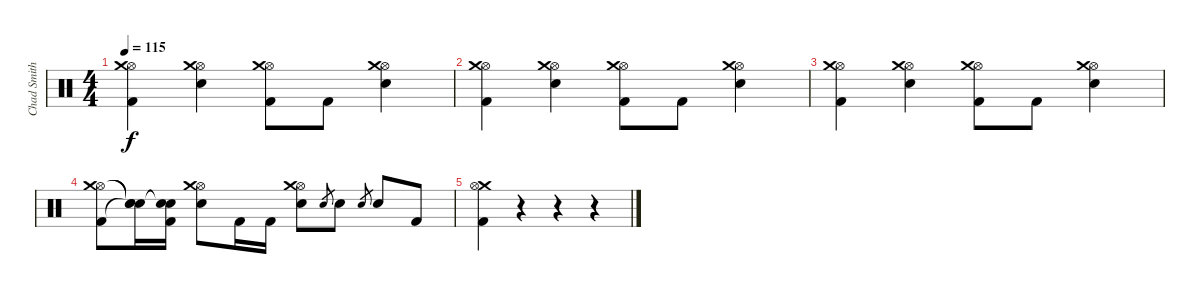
\track ("Chad Smith" "Chad Smith") {instrument percussion}
\staff {score}
\articulation defaults
\ts (4 4)
\tempo 115
\clef neutral
\ks c
("Hi-Hat (open)" "Crash medium (hit)" "Kick (hit) 2").4{dy f} ("Hi-Hat (open)" "Crash medium (hit)" "Electric Snare (hit)").4 ("Hi-Hat (open)" "Crash medium (hit)" "Kick (hit) 2").8 "Kick (hit) 2".8 ("Hi-Hat (open)" "Crash medium (hit)" "Electric Snare (hit)").4 |
("Hi-Hat (open)" "Crash medium (hit)" "Kick (hit) 2").4 ("Hi-Hat (open)" "Crash medium (hit)" "Electric Snare (hit)").4 ("Hi-Hat (open)" "Crash medium (hit)" "Kick (hit) 2").8 "Kick (hit) 2".8 ("Hi-Hat (open)" "Crash medium (hit)" "Electric Snare (hit)").4 |
("Hi-Hat (open)" "Crash medium (hit)" "Kick (hit) 2").4 ("Hi-Hat (open)" "Crash medium (hit)" "Electric Snare (hit)").4 ("Hi-Hat (open)" "Crash medium (hit)" "Kick (hit) 2").8 "Kick (hit) 2".8 ("Hi-Hat (open)" "Crash medium (hit)" "Electric Snare (hit)").4 |
("Hi-Hat (open)" "Crash medium (hit)" "Kick (hit) 2").8 ("Snare (hit)"{t} "Snare (hit)"{t} "Snare (hit)"{t}).16 ("Snare (hit)"{t} "Snare (hit)"{t} "Kick (hit) 2").16 ("Hi-Hat (open)" "Crash medium (hit)" "Electric Snare (hit)").8 "Kick (hit) 2".16 "Kick (hit) 2".16 ("Hi-Hat (open)" "Crash medium (hit)" "Electric Snare (hit)").8 "Electric Snare (hit)".8{gr} "Electric Snare (hit)".8 "Electric Snare (hit)".8{gr} "Electric Snare (hit)".8 "Kick (hit) 2".8 |
("Crash medium (hit)" "Hi-Hat (open)" "Kick (hit) 2").4 r.4 r.4 r.4
